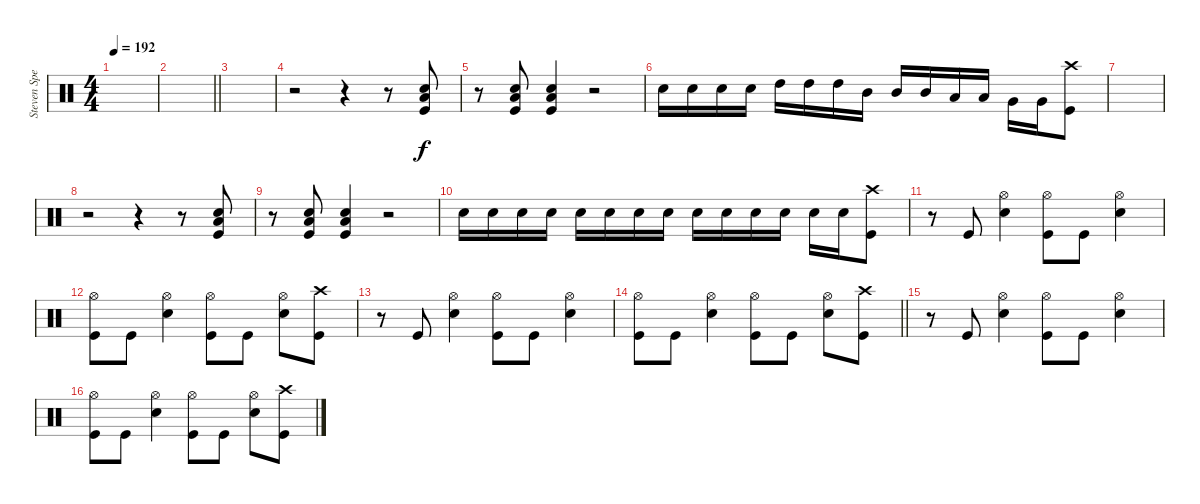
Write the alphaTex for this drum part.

\track ("Steven Spence" "Steven Spe") {instrument percussion}
\staff {score}
\articulation defaults
\ts (4 4)
\tempo 192
\clef neutral
\ks c
|
\barLineRight lightlight
|
\section ("" "")
|
r.2 r.4 r.8 ("Low Tom (hit)" "Electric Snare (hit)" "Kick (hit)").8 |
r.8 ("Low Tom (hit)" "Electric Snare (hit)" "Kick (hit)").8 ("Low Tom (hit)" "Electric Snare (hit)" "Kick (hit)").4 r.2 |
"Electric Snare (hit)".16 "Electric Snare (hit)".16 "Electric Snare (hit)".16 "Electric Snare (hit)".16 "High Tom (hit)".16 "High Tom (hit)".16 "High Tom (hit)".16 "Mid Tom (hit)".16 "Mid Tom (hit)".16 "Mid Tom (hit)".16 "Low Tom (hit)".16 "Low Tom (hit)".16 "Very Low Tom (hit)".16 "Very Low Tom (hit)".16 ("Crash high (hit)" "Kick (hit)").8 |
|
r.2 r.4 r.8 ("Low Tom (hit)" "Electric Snare (hit)" "Kick (hit)").8 |
r.8 ("Low Tom (hit)" "Electric Snare (hit)" "Kick (hit)").8 ("Low Tom (hit)" "Electric Snare (hit)" "Kick (hit)").4 r.2 |
"Electric Snare (hit)".16 "Electric Snare (hit)".16 "Electric Snare (hit)".16 "Electric Snare (hit)".16 "Electric Snare (hit)".16 "Electric Snare (hit)".16 "Electric Snare (hit)".16 "Electric Snare (hit)".16 "Electric Snare (hit)".16 "Electric Snare (hit)".16 "Electric Snare (hit)".16 "Electric Snare (hit)".16 "Electric Snare (hit)".16 "Electric Snare (hit)".16 ("Crash high (hit)" "Kick (hit)").8 |
r.8 "Kick (hit)".8 ("Hi-Hat (open)" "Electric Snare (hit)").4 ("Hi-Hat (open)" "Kick (hit)").8 "Kick (hit)".8 ("Hi-Hat (open)" "Electric Snare (hit)").4 |
("Hi-Hat (open)" "Kick (hit)").8 "Kick (hit)".8 ("Hi-Hat (open)" "Electric Snare (hit)").4 ("Hi-Hat (open)" "Kick (hit)").8 "Kick (hit)".8 ("Hi-Hat (open)" "Electric Snare (hit)").8 ("Crash high (hit)" "Kick (hit)").8 |
r.8 "Kick (hit)".8 ("Hi-Hat (open)" "Electric Snare (hit)").4 ("Hi-Hat (open)" "Kick (hit)").8 "Kick (hit)".8 ("Hi-Hat (open)" "Electric Snare (hit)").4 |
\barLineRight lightlight
("Hi-Hat (open)" "Kick (hit)").8 "Kick (hit)".8 ("Hi-Hat (open)" "Electric Snare (hit)").4 ("Hi-Hat (open)" "Kick (hit)").8 "Kick (hit)".8 ("Hi-Hat (open)" "Electric Snare (hit)").8 ("Crash high (hit)" "Kick (hit)").8 |
\section ("" "")
r.8 "Kick (hit)".8 ("Hi-Hat (open)" "Electric Snare (hit)").4 ("Hi-Hat (open)" "Kick (hit)").8 "Kick (hit)".8 ("Hi-Hat (open)" "Electric Snare (hit)").4 |
("Hi-Hat (open)" "Kick (hit)").8 "Kick (hit)".8 ("Hi-Hat (open)" "Electric Snare (hit)").4 ("Hi-Hat (open)" "Kick (hit)").8 "Kick (hit)".8 ("Hi-Hat (open)" "Electric Snare (hit)").8 ("Crash high (hit)" "Kick (hit)").8
